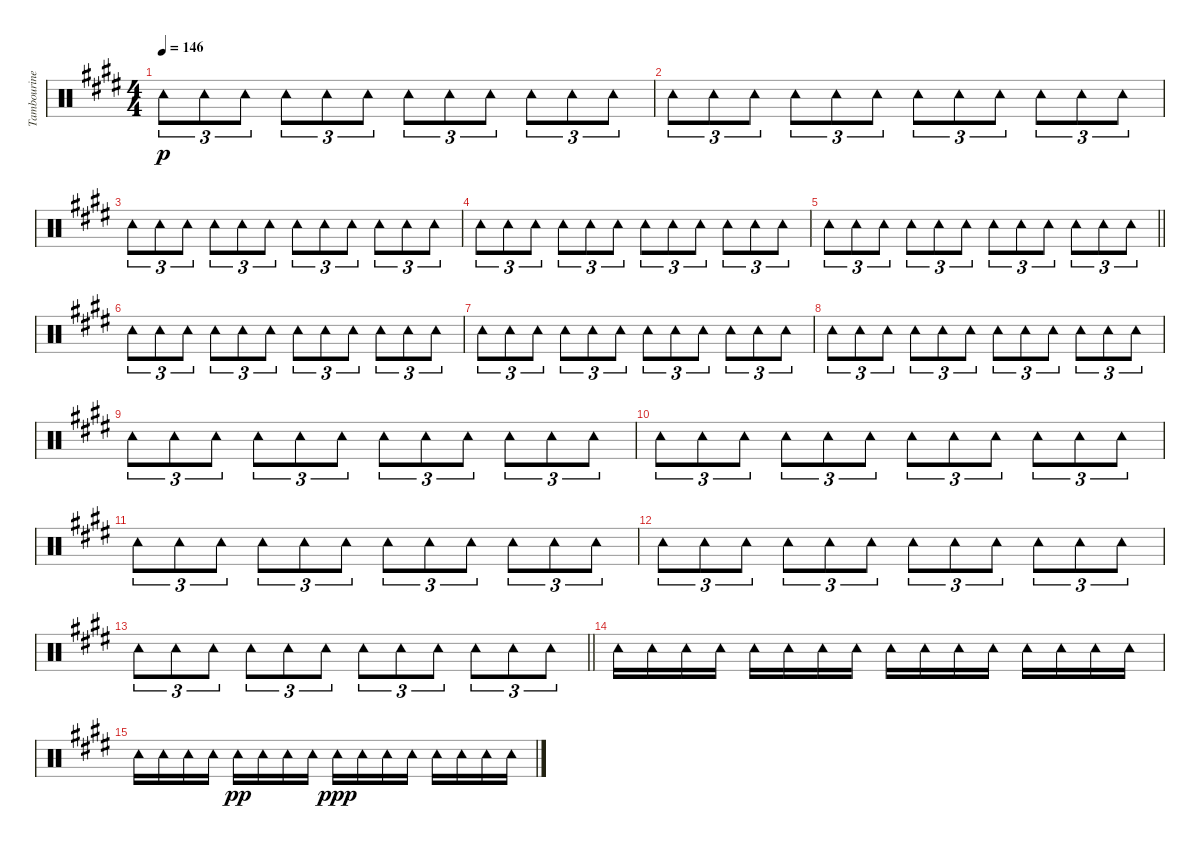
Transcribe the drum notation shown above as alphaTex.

\track ("Tambourine" "Tambourine") {instrument percussion}
\staff {score}
\articulation defaults
\ts (4 4)
\tempo 146
\clef neutral
\ks c#minor "Tambourine (hit)".8{tu (3 2) dy p} "Tambourine (hit)".8{tu (3 2)} "Tambourine (hit)".8{tu (3 2)} "Tambourine (hit)".8{tu (3 2)} "Tambourine (hit)".8{tu (3 2)} "Tambourine (hit)".8{tu (3 2)} "Tambourine (hit)".8{tu (3 2)} "Tambourine (hit)".8{tu (3 2)} "Tambourine (hit)".8{tu (3 2)} "Tambourine (hit)".8{tu (3 2)} "Tambourine (hit)".8{tu (3 2)} "Tambourine (hit)".8{tu (3 2)}
|
"Tambourine (hit)".8{tu (3 2)} "Tambourine (hit)".8{tu (3 2)} "Tambourine (hit)".8{tu (3 2)} "Tambourine (hit)".8{tu (3 2)} "Tambourine (hit)".8{tu (3 2)} "Tambourine (hit)".8{tu (3 2)} "Tambourine (hit)".8{tu (3 2)} "Tambourine (hit)".8{tu (3 2)} "Tambourine (hit)".8{tu (3 2)} "Tambourine (hit)".8{tu (3 2)} "Tambourine (hit)".8{tu (3 2)} "Tambourine (hit)".8{tu (3 2)} |
"Tambourine (hit)".8{tu (3 2)} "Tambourine (hit)".8{tu (3 2)} "Tambourine (hit)".8{tu (3 2)} "Tambourine (hit)".8{tu (3 2)} "Tambourine (hit)".8{tu (3 2)} "Tambourine (hit)".8{tu (3 2)} "Tambourine (hit)".8{tu (3 2)} "Tambourine (hit)".8{tu (3 2)} "Tambourine (hit)".8{tu (3 2)} "Tambourine (hit)".8{tu (3 2)} "Tambourine (hit)".8{tu (3 2)} "Tambourine (hit)".8{tu (3 2)} |
"Tambourine (hit)".8{tu (3 2)} "Tambourine (hit)".8{tu (3 2)} "Tambourine (hit)".8{tu (3 2)} "Tambourine (hit)".8{tu (3 2)} "Tambourine (hit)".8{tu (3 2)} "Tambourine (hit)".8{tu (3 2)} "Tambourine (hit)".8{tu (3 2)} "Tambourine (hit)".8{tu (3 2)} "Tambourine (hit)".8{tu (3 2)} "Tambourine (hit)".8{tu (3 2)} "Tambourine (hit)".8{tu (3 2)} "Tambourine (hit)".8{tu (3 2)} |
\barLineRight lightlight "Tambourine (hit)".8{tu (3 2)} "Tambourine (hit)".8{tu (3 2)} "Tambourine (hit)".8{tu (3 2)} "Tambourine (hit)".8{tu (3 2)} "Tambourine (hit)".8{tu (3 2)} "Tambourine (hit)".8{tu (3 2)} "Tambourine (hit)".8{tu (3 2)} "Tambourine (hit)".8{tu (3 2)} "Tambourine (hit)".8{tu (3 2)} "Tambourine (hit)".8{tu (3 2)} "Tambourine (hit)".8{tu (3 2)} "Tambourine (hit)".8{tu (3 2)}
|
"Tambourine (hit)".8{tu (3 2)} "Tambourine (hit)".8{tu (3 2)} "Tambourine (hit)".8{tu (3 2)} "Tambourine (hit)".8{tu (3 2)} "Tambourine (hit)".8{tu (3 2)} "Tambourine (hit)".8{tu (3 2)} "Tambourine (hit)".8{tu (3 2)} "Tambourine (hit)".8{tu (3 2)} "Tambourine (hit)".8{tu (3 2)} "Tambourine (hit)".8{tu (3 2)} "Tambourine (hit)".8{tu (3 2)} "Tambourine (hit)".8{tu (3 2)} |
"Tambourine (hit)".8{tu (3 2)} "Tambourine (hit)".8{tu (3 2)} "Tambourine (hit)".8{tu (3 2)} "Tambourine (hit)".8{tu (3 2)} "Tambourine (hit)".8{tu (3 2)} "Tambourine (hit)".8{tu (3 2)} "Tambourine (hit)".8{tu (3 2)} "Tambourine (hit)".8{tu (3 2)} "Tambourine (hit)".8{tu (3 2)} "Tambourine (hit)".8{tu (3 2)} "Tambourine (hit)".8{tu (3 2)} "Tambourine (hit)".8{tu (3 2)} |
"Tambourine (hit)".8{tu (3 2)} "Tambourine (hit)".8{tu (3 2)} "Tambourine (hit)".8{tu (3 2)} "Tambourine (hit)".8{tu (3 2)} "Tambourine (hit)".8{tu (3 2)} "Tambourine (hit)".8{tu (3 2)} "Tambourine (hit)".8{tu (3 2)} "Tambourine (hit)".8{tu (3 2)} "Tambourine (hit)".8{tu (3 2)} "Tambourine (hit)".8{tu (3 2)} "Tambourine (hit)".8{tu (3 2)} "Tambourine (hit)".8{tu (3 2)} |
"Tambourine (hit)".8{tu (3 2)} "Tambourine (hit)".8{tu (3 2)} "Tambourine (hit)".8{tu (3 2)} "Tambourine (hit)".8{tu (3 2)} "Tambourine (hit)".8{tu (3 2)} "Tambourine (hit)".8{tu (3 2)} "Tambourine (hit)".8{tu (3 2)} "Tambourine (hit)".8{tu (3 2)} "Tambourine (hit)".8{tu (3 2)} "Tambourine (hit)".8{tu (3 2)} "Tambourine (hit)".8{tu (3 2)} "Tambourine (hit)".8{tu (3 2)} |
"Tambourine (hit)".8{tu (3 2)} "Tambourine (hit)".8{tu (3 2)} "Tambourine (hit)".8{tu (3 2)} "Tambourine (hit)".8{tu (3 2)} "Tambourine (hit)".8{tu (3 2)} "Tambourine (hit)".8{tu (3 2)} "Tambourine (hit)".8{tu (3 2)} "Tambourine (hit)".8{tu (3 2)} "Tambourine (hit)".8{tu (3 2)} "Tambourine (hit)".8{tu (3 2)} "Tambourine (hit)".8{tu (3 2)} "Tambourine (hit)".8{tu (3 2)} |
"Tambourine (hit)".8{tu (3 2)} "Tambourine (hit)".8{tu (3 2)} "Tambourine (hit)".8{tu (3 2)} "Tambourine (hit)".8{tu (3 2)} "Tambourine (hit)".8{tu (3 2)} "Tambourine (hit)".8{tu (3 2)} "Tambourine (hit)".8{tu (3 2)} "Tambourine (hit)".8{tu (3 2)} "Tambourine (hit)".8{tu (3 2)} "Tambourine (hit)".8{tu (3 2)} "Tambourine (hit)".8{tu (3 2)} "Tambourine (hit)".8{tu (3 2)} |
"Tambourine (hit)".8{tu (3 2)} "Tambourine (hit)".8{tu (3 2)} "Tambourine (hit)".8{tu (3 2)} "Tambourine (hit)".8{tu (3 2)} "Tambourine (hit)".8{tu (3 2)} "Tambourine (hit)".8{tu (3 2)} "Tambourine (hit)".8{tu (3 2)} "Tambourine (hit)".8{tu (3 2)} "Tambourine (hit)".8{tu (3 2)} "Tambourine (hit)".8{tu (3 2)} "Tambourine (hit)".8{tu (3 2)} "Tambourine (hit)".8{tu (3 2)} |
\barLineRight lightlight "Tambourine (hit)".8{tu (3 2)} "Tambourine (hit)".8{tu (3 2)} "Tambourine (hit)".8{tu (3 2)} "Tambourine (hit)".8{tu (3 2)} "Tambourine (hit)".8{tu (3 2)} "Tambourine (hit)".8{tu (3 2)} "Tambourine (hit)".8{tu (3 2)} "Tambourine (hit)".8{tu (3 2)} "Tambourine (hit)".8{tu (3 2)} "Tambourine (hit)".8{tu (3 2)} "Tambourine (hit)".8{tu (3 2)} "Tambourine (hit)".8{tu (3 2)}
|
"Tambourine (hit)".16 "Tambourine (hit)".16 "Tambourine (hit)".16 "Tambourine (hit)".16 "Tambourine (hit)".16 "Tambourine (hit)".16 "Tambourine (hit)".16 "Tambourine (hit)".16 "Tambourine (hit)".16 "Tambourine (hit)".16 "Tambourine (hit)".16 "Tambourine (hit)".16 "Tambourine (hit)".16 "Tambourine (hit)".16 "Tambourine (hit)".16 "Tambourine (hit)".16 |
"Tambourine (hit)".16 "Tambourine (hit)".16 "Tambourine (hit)".16 "Tambourine (hit)".16 "Tambourine (hit)".16{dy pp} "Tambourine (hit)".16 "Tambourine (hit)".16 "Tambourine (hit)".16 "Tambourine (hit)".16{dy ppp} "Tambourine (hit)".16 "Tambourine (hit)".16 "Tambourine (hit)".16 "Tambourine (hit)".16 "Tambourine (hit)".16 "Tambourine (hit)".16 "Tambourine (hit)".16
